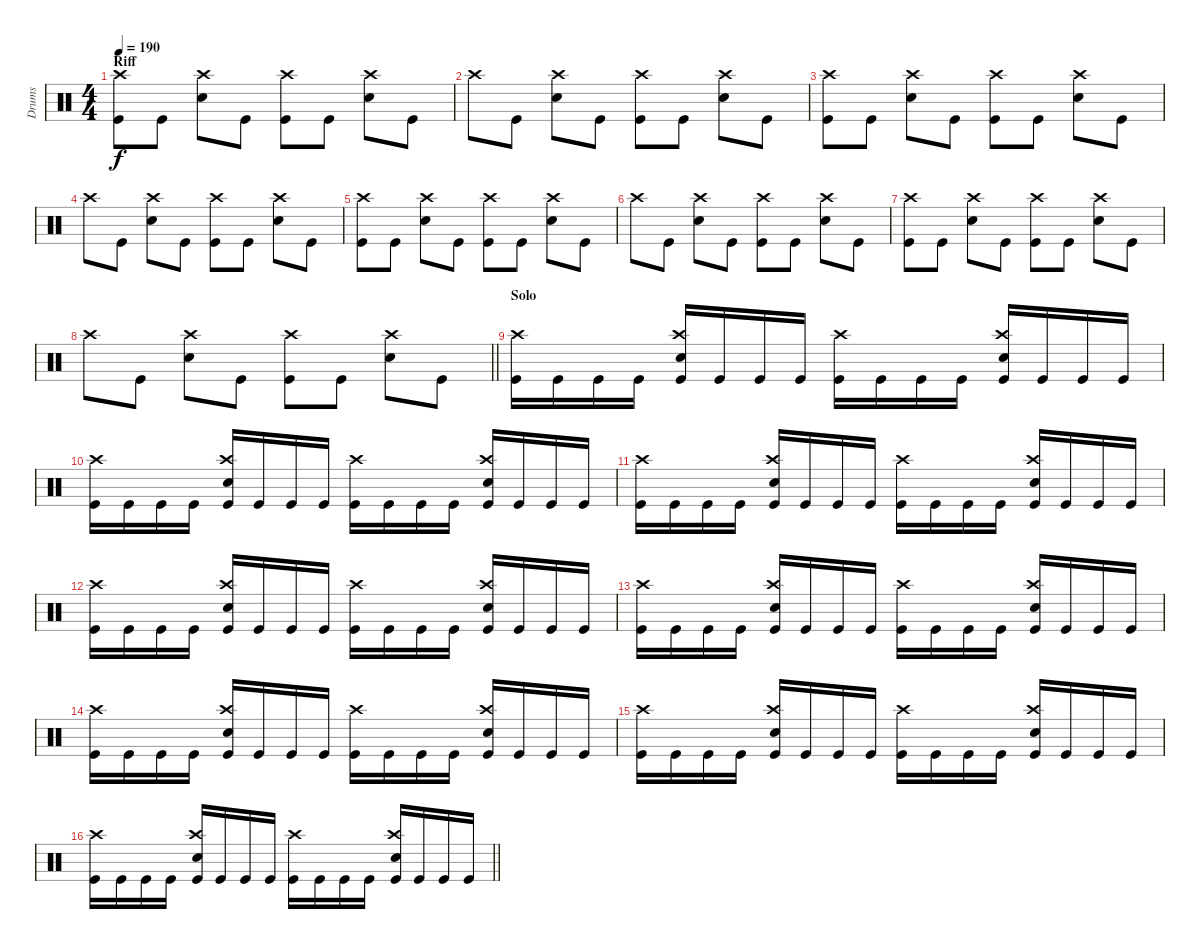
\track ("Drums" "Drums") {instrument percussion}
\staff {score}
\articulation defaults
\ts (4 4)
\section ("" "Riff")
\tempo 190
\clef neutral
\ks c
("Kick (hit)" "Crash high (hit)").8{dy f} "Kick (hit)".8 ("Snare (hit) 2" "Crash high (hit)").8 "Kick (hit)".8 ("Kick (hit)" "Crash high (hit)").8 "Kick (hit)".8 ("Snare (hit) 2" "Crash high (hit)").8 "Kick (hit)".8 |
"Crash high (hit)".8 "Kick (hit)".8 ("Snare (hit) 2" "Crash high (hit)").8 "Kick (hit)".8 ("Kick (hit)" "Crash high (hit)").8 "Kick (hit)".8 ("Snare (hit) 2" "Crash high (hit)").8 "Kick (hit)".8 |
("Kick (hit)" "Crash high (hit)").8 "Kick (hit)".8 ("Snare (hit) 2" "Crash high (hit)").8 "Kick (hit)".8 ("Kick (hit)" "Crash high (hit)").8 "Kick (hit)".8 ("Snare (hit) 2" "Crash high (hit)").8 "Kick (hit)".8 |
"Crash high (hit)".8 "Kick (hit)".8 ("Snare (hit) 2" "Crash high (hit)").8 "Kick (hit)".8 ("Kick (hit)" "Crash high (hit)").8 "Kick (hit)".8 ("Snare (hit) 2" "Crash high (hit)").8 "Kick (hit)".8 |
("Kick (hit)" "Crash high (hit)").8 "Kick (hit)".8 ("Snare (hit) 2" "Crash high (hit)").8 "Kick (hit)".8 ("Kick (hit)" "Crash high (hit)").8 "Kick (hit)".8 ("Snare (hit) 2" "Crash high (hit)").8 "Kick (hit)".8 |
"Crash high (hit)".8 "Kick (hit)".8 ("Snare (hit) 2" "Crash high (hit)").8 "Kick (hit)".8 ("Kick (hit)" "Crash high (hit)").8 "Kick (hit)".8 ("Snare (hit) 2" "Crash high (hit)").8 "Kick (hit)".8 |
("Kick (hit)" "Crash high (hit)").8 "Kick (hit)".8 ("Snare (hit) 2" "Crash high (hit)").8 "Kick (hit)".8 ("Kick (hit)" "Crash high (hit)").8 "Kick (hit)".8 ("Snare (hit) 2" "Crash high (hit)").8 "Kick (hit)".8 |
\barLineRight lightlight "Crash high (hit)".8 "Kick (hit)".8
("Snare (hit) 2" "Crash high (hit)").8 "Kick (hit)".8 ("Kick (hit)" "Crash high (hit)").8 "Kick (hit)".8 ("Snare (hit) 2" "Crash high (hit)").8 "Kick (hit)".8 |
\section ("" "Solo")
("Kick (hit)" "Crash high (hit)").16 "Kick (hit)".16 "Kick (hit)".16 "Kick (hit)".16 ("Snare (hit) 2" "Kick (hit)" "Crash high (hit)").16 "Kick (hit)".16 "Kick (hit)".16 "Kick (hit)".16 ("Kick (hit)" "Crash high (hit)").16 "Kick (hit)".16 "Kick (hit)".16 "Kick (hit)".16 ("Snare (hit) 2" "Kick (hit)" "Crash high (hit)").16 "Kick (hit)".16 "Kick (hit)".16 "Kick (hit)".16 |
("Kick (hit)" "Crash high (hit)").16 "Kick (hit)".16 "Kick (hit)".16 "Kick (hit)".16 ("Snare (hit) 2" "Kick (hit)" "Crash high (hit)").16 "Kick (hit)".16 "Kick (hit)".16 "Kick (hit)".16 ("Kick (hit)" "Crash high (hit)").16 "Kick (hit)".16 "Kick (hit)".16 "Kick (hit)".16 ("Snare (hit) 2" "Kick (hit)" "Crash high (hit)").16 "Kick (hit)".16 "Kick (hit)".16 "Kick (hit)".16 |
("Kick (hit)" "Crash high (hit)").16 "Kick (hit)".16 "Kick (hit)".16 "Kick (hit)".16 ("Snare (hit) 2" "Kick (hit)" "Crash high (hit)").16 "Kick (hit)".16 "Kick (hit)".16 "Kick (hit)".16 ("Kick (hit)" "Crash high (hit)").16 "Kick (hit)".16 "Kick (hit)".16 "Kick (hit)".16 ("Snare (hit) 2" "Kick (hit)" "Crash high (hit)").16 "Kick (hit)".16 "Kick (hit)".16 "Kick (hit)".16 |
("Kick (hit)" "Crash high (hit)").16 "Kick (hit)".16 "Kick (hit)".16 "Kick (hit)".16 ("Snare (hit) 2" "Kick (hit)" "Crash high (hit)").16 "Kick (hit)".16 "Kick (hit)".16 "Kick (hit)".16 ("Kick (hit)" "Crash high (hit)").16 "Kick (hit)".16 "Kick (hit)".16 "Kick (hit)".16 ("Snare (hit) 2" "Kick (hit)" "Crash high (hit)").16 "Kick (hit)".16 "Kick (hit)".16 "Kick (hit)".16 |
("Kick (hit)" "Crash high (hit)").16 "Kick (hit)".16 "Kick (hit)".16 "Kick (hit)".16 ("Snare (hit) 2" "Kick (hit)" "Crash high (hit)").16 "Kick (hit)".16 "Kick (hit)".16 "Kick (hit)".16 ("Kick (hit)" "Crash high (hit)").16 "Kick (hit)".16 "Kick (hit)".16 "Kick (hit)".16 ("Snare (hit) 2" "Kick (hit)" "Crash high (hit)").16 "Kick (hit)".16 "Kick (hit)".16 "Kick (hit)".16 |
("Kick (hit)" "Crash high (hit)").16 "Kick (hit)".16 "Kick (hit)".16 "Kick (hit)".16 ("Snare (hit) 2" "Kick (hit)" "Crash high (hit)").16 "Kick (hit)".16 "Kick (hit)".16 "Kick (hit)".16 ("Kick (hit)" "Crash high (hit)").16 "Kick (hit)".16 "Kick (hit)".16 "Kick (hit)".16 ("Snare (hit) 2" "Kick (hit)" "Crash high (hit)").16 "Kick (hit)".16 "Kick (hit)".16 "Kick (hit)".16 |
("Kick (hit)" "Crash high (hit)").16 "Kick (hit)".16 "Kick (hit)".16 "Kick (hit)".16 ("Snare (hit) 2" "Kick (hit)" "Crash high (hit)").16 "Kick (hit)".16 "Kick (hit)".16 "Kick (hit)".16 ("Kick (hit)" "Crash high (hit)").16 "Kick (hit)".16 "Kick (hit)".16 "Kick (hit)".16 ("Snare (hit) 2" "Kick (hit)" "Crash high (hit)").16 "Kick (hit)".16 "Kick (hit)".16 "Kick (hit)".16 |
\barLineRight lightlight
("Kick (hit)" "Crash high (hit)").16 "Kick (hit)".16 "Kick (hit)".16 "Kick (hit)".16 ("Snare (hit) 2" "Kick (hit)" "Crash high (hit)").16 "Kick (hit)".16 "Kick (hit)".16 "Kick (hit)".16 ("Kick (hit)" "Crash high (hit)").16 "Kick (hit)".16 "Kick (hit)".16 "Kick (hit)".16 ("Snare (hit) 2" "Kick (hit)" "Crash high (hit)").16 "Kick (hit)".16 "Kick (hit)".16 "Kick (hit)".16
